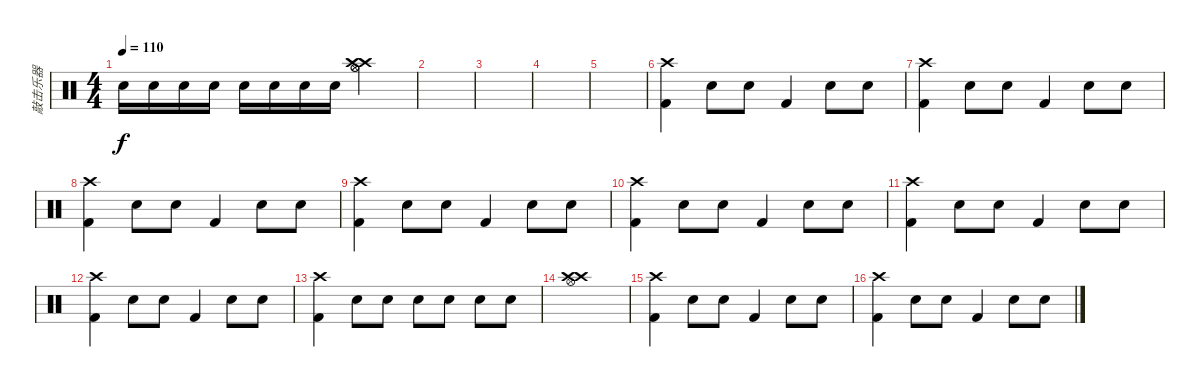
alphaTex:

\track ("敲击乐器" "敲击乐器") {instrument percussion}
\staff {score}
\articulation defaults
\ts (4 4)
\tempo 110
\clef neutral
\ks c "Snare (hit) 2".16{dy f} "Snare (hit) 2".16 "Snare (hit) 2".16 "Snare (hit) 2".16 "Snare (hit) 2".16 "Snare (hit) 2".16 "Snare (hit) 2".16 "Snare (hit) 2".16
("Hi-Hat (open)" "Hi-Hat (open)" "Crash high (hit)" "Crash high (hit)").2 |
|
|
|
|
("Kick (hit) 2" "Crash high (hit)").4 "Snare (hit) 2".8 "Snare (hit) 2".8 "Kick (hit) 2".4 "Snare (hit) 2".8 "Snare (hit) 2".8 |
("Kick (hit) 2" "Crash high (hit)").4 "Snare (hit) 2".8 "Snare (hit) 2".8 "Kick (hit) 2".4 "Snare (hit) 2".8 "Snare (hit) 2".8 |
("Kick (hit) 2" "Crash high (hit)").4 "Snare (hit) 2".8 "Snare (hit) 2".8 "Kick (hit) 2".4 "Snare (hit) 2".8 "Snare (hit) 2".8 |
("Kick (hit) 2" "Crash high (hit)").4 "Snare (hit) 2".8 "Snare (hit) 2".8 "Kick (hit) 2".4 "Snare (hit) 2".8 "Snare (hit) 2".8 |
("Kick (hit) 2" "Crash high (hit)").4 "Snare (hit) 2".8 "Snare (hit) 2".8 "Kick (hit) 2".4 "Snare (hit) 2".8 "Snare (hit) 2".8 |
("Kick (hit) 2" "Crash high (hit)").4 "Snare (hit) 2".8 "Snare (hit) 2".8 "Kick (hit) 2".4 "Snare (hit) 2".8 "Snare (hit) 2".8 |
("Kick (hit) 2" "Crash high (hit)").4 "Snare (hit) 2".8 "Snare (hit) 2".8 "Kick (hit) 2".4 "Snare (hit) 2".8 "Snare (hit) 2".8 |
("Kick (hit) 2" "Crash high (hit)").4 "Snare (hit) 2".8 "Snare (hit) 2".8 "Snare (hit) 2".8 "Snare (hit) 2".8 "Snare (hit) 2".8 "Snare (hit) 2".8 |
("Crash high (hit)" "Crash high (hit)" "Hi-Hat (open)").1 |
("Kick (hit) 2" "Crash high (hit)").4 "Snare (hit) 2".8 "Snare (hit) 2".8 "Kick (hit) 2".4 "Snare (hit) 2".8 "Snare (hit) 2".8 |
("Kick (hit) 2" "Crash high (hit)").4 "Snare (hit) 2".8 "Snare (hit) 2".8 "Kick (hit) 2".4 "Snare (hit) 2".8 "Snare (hit) 2".8
